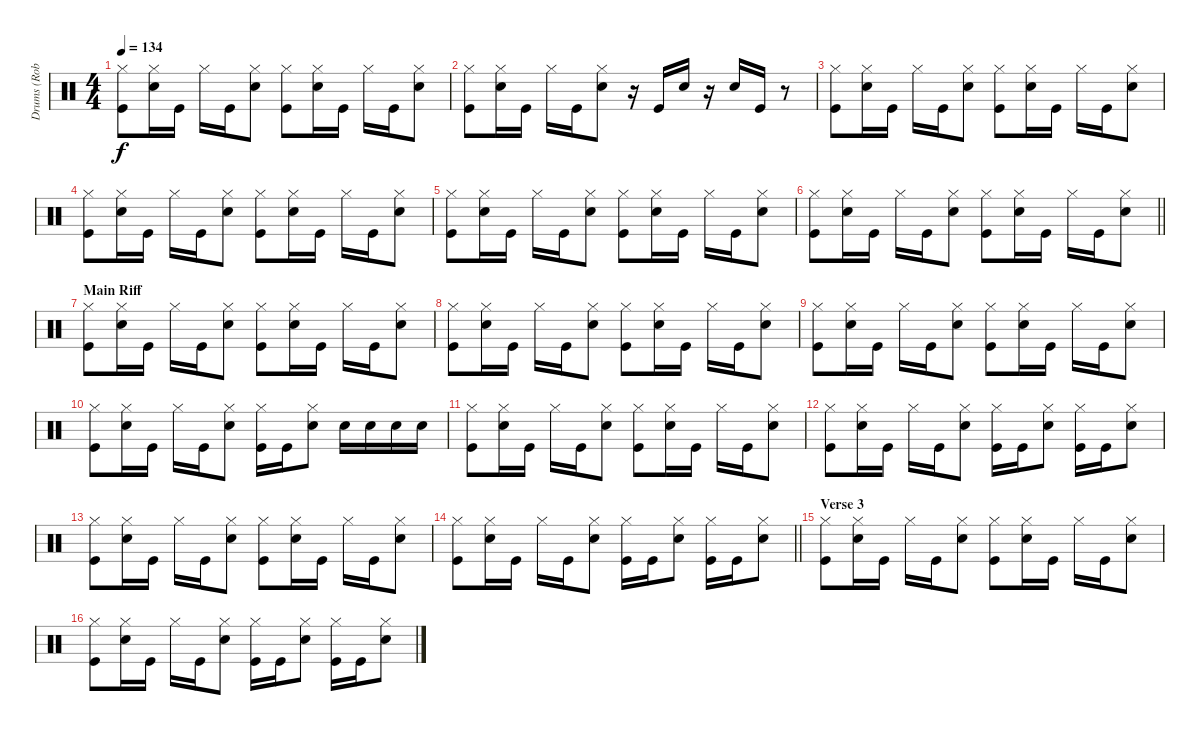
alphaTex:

\track ("Drums (Rob Affuso)" "Drums (Rob") {instrument percussion}
\staff {score}
\articulation defaults
\ts (4 4)
\tempo 134
\clef neutral
\ks c
("Hi-Hat (closed)" "Kick (hit)").8{dy f} ("Hi-Hat (closed)" "Snare (hit) 2").16 "Kick (hit)".16 "Hi-Hat (closed)".16 "Kick (hit)".16 ("Hi-Hat (closed)" "Snare (hit) 2").8 ("Hi-Hat (closed)" "Kick (hit)").8 ("Hi-Hat (closed)" "Snare (hit) 2").16 "Kick (hit)".16 "Hi-Hat (closed)".16 "Kick (hit)".16 ("Hi-Hat (closed)" "Snare (hit) 2").8 |
("Hi-Hat (closed)" "Kick (hit)").8 ("Hi-Hat (closed)" "Snare (hit) 2").16 "Kick (hit)".16 "Hi-Hat (closed)".16 "Kick (hit)".16 ("Hi-Hat (closed)" "Snare (hit) 2").8 r.16 "Kick (hit)".16 "Snare (hit) 2".16 r.16 "Snare (hit) 2".16 "Kick (hit)".16 r.8 |
("Hi-Hat (closed)" "Kick (hit)").8 ("Hi-Hat (closed)" "Snare (hit) 2").16 "Kick (hit)".16 "Hi-Hat (closed)".16 "Kick (hit)".16 ("Hi-Hat (closed)" "Snare (hit) 2").8 ("Hi-Hat (closed)" "Kick (hit)").8 ("Hi-Hat (closed)" "Snare (hit) 2").16 "Kick (hit)".16 "Hi-Hat (closed)".16 "Kick (hit)".16 ("Hi-Hat (closed)" "Snare (hit) 2").8 |
("Hi-Hat (closed)" "Kick (hit)").8 ("Hi-Hat (closed)" "Snare (hit) 2").16 "Kick (hit)".16 "Hi-Hat (closed)".16 "Kick (hit)".16 ("Hi-Hat (closed)" "Snare (hit) 2").8 ("Hi-Hat (closed)" "Kick (hit)").8 ("Hi-Hat (closed)" "Snare (hit) 2").16 "Kick (hit)".16 "Hi-Hat (closed)".16 "Kick (hit)".16 ("Hi-Hat (closed)" "Snare (hit) 2").8 |
("Hi-Hat (closed)" "Kick (hit)").8 ("Hi-Hat (closed)" "Snare (hit) 2").16 "Kick (hit)".16 "Hi-Hat (closed)".16 "Kick (hit)".16 ("Hi-Hat (closed)" "Snare (hit) 2").8 ("Hi-Hat (closed)" "Kick (hit)").8 ("Hi-Hat (closed)" "Snare (hit) 2").16 "Kick (hit)".16 "Hi-Hat (closed)".16 "Kick (hit)".16 ("Hi-Hat (closed)" "Snare (hit) 2").8 |
\barLineRight lightlight
("Hi-Hat (closed)" "Kick (hit)").8 ("Hi-Hat (closed)" "Snare (hit) 2").16 "Kick (hit)".16 "Hi-Hat (closed)".16 "Kick (hit)".16 ("Hi-Hat (closed)" "Snare (hit) 2").8 ("Hi-Hat (closed)" "Kick (hit)").8 ("Hi-Hat (closed)" "Snare (hit) 2").16 "Kick (hit)".16 "Hi-Hat (closed)".16 "Kick (hit)".16 ("Hi-Hat (closed)" "Snare (hit) 2").8 |
\section ("" "Main Riff")
("Hi-Hat (closed)" "Kick (hit)").8 ("Hi-Hat (closed)" "Snare (hit) 2").16 "Kick (hit)".16 "Hi-Hat (closed)".16 "Kick (hit)".16 ("Hi-Hat (closed)" "Snare (hit) 2").8 ("Hi-Hat (closed)" "Kick (hit)").8 ("Hi-Hat (closed)" "Snare (hit) 2").16 "Kick (hit)".16 "Hi-Hat (closed)".16 "Kick (hit)".16 ("Hi-Hat (closed)" "Snare (hit) 2").8 |
("Hi-Hat (closed)" "Kick (hit)").8 ("Hi-Hat (closed)" "Snare (hit) 2").16 "Kick (hit)".16 "Hi-Hat (closed)".16 "Kick (hit)".16 ("Hi-Hat (closed)" "Snare (hit) 2").8 ("Hi-Hat (closed)" "Kick (hit)").8 ("Hi-Hat (closed)" "Snare (hit) 2").16 "Kick (hit)".16 "Hi-Hat (closed)".16 "Kick (hit)".16 ("Hi-Hat (closed)" "Snare (hit) 2").8 |
("Hi-Hat (closed)" "Kick (hit)").8 ("Hi-Hat (closed)" "Snare (hit) 2").16 "Kick (hit)".16 "Hi-Hat (closed)".16 "Kick (hit)".16 ("Hi-Hat (closed)" "Snare (hit) 2").8 ("Hi-Hat (closed)" "Kick (hit)").8 ("Hi-Hat (closed)" "Snare (hit) 2").16 "Kick (hit)".16 "Hi-Hat (closed)".16 "Kick (hit)".16 ("Hi-Hat (closed)" "Snare (hit) 2").8 |
("Hi-Hat (closed)" "Kick (hit)").8 ("Hi-Hat (closed)" "Snare (hit) 2").16 "Kick (hit)".16 "Hi-Hat (closed)".16 "Kick (hit)".16 ("Hi-Hat (closed)" "Snare (hit) 2").8 ("Hi-Hat (closed)" "Kick (hit)").16 "Kick (hit)".16 ("Hi-Hat (closed)" "Snare (hit) 2").8 "Snare (hit) 2".16 "Snare (hit) 2".16 "Snare (hit) 2".16 "Snare (hit) 2".16 |
("Hi-Hat (closed)" "Kick (hit)").8 ("Hi-Hat (closed)" "Snare (hit) 2").16 "Kick (hit)".16 "Hi-Hat (closed)".16 "Kick (hit)".16 ("Hi-Hat (closed)" "Snare (hit) 2").8 ("Hi-Hat (closed)" "Kick (hit)").8 ("Hi-Hat (closed)" "Snare (hit) 2").16 "Kick (hit)".16 "Hi-Hat (closed)".16 "Kick (hit)".16 ("Hi-Hat (closed)" "Snare (hit) 2").8 |
("Hi-Hat (closed)" "Kick (hit)").8 ("Hi-Hat (closed)" "Snare (hit) 2").16 "Kick (hit)".16 "Hi-Hat (closed)".16 "Kick (hit)".16 ("Hi-Hat (closed)" "Snare (hit) 2").8 ("Hi-Hat (closed)" "Kick (hit)").16 "Kick (hit)".16 ("Hi-Hat (closed)" "Snare (hit) 2").8 ("Hi-Hat (closed)" "Kick (hit)").16 "Kick (hit)".16 ("Hi-Hat (closed)" "Snare (hit) 2").8 |
("Hi-Hat (closed)" "Kick (hit)").8 ("Hi-Hat (closed)" "Snare (hit) 2").16 "Kick (hit)".16 "Hi-Hat (closed)".16 "Kick (hit)".16 ("Hi-Hat (closed)" "Snare (hit) 2").8 ("Hi-Hat (closed)" "Kick (hit)").8 ("Hi-Hat (closed)" "Snare (hit) 2").16 "Kick (hit)".16 "Hi-Hat (closed)".16 "Kick (hit)".16 ("Hi-Hat (closed)" "Snare (hit) 2").8 |
\barLineRight lightlight
("Hi-Hat (closed)" "Kick (hit)").8 ("Hi-Hat (closed)" "Snare (hit) 2").16 "Kick (hit)".16 "Hi-Hat (closed)".16 "Kick (hit)".16 ("Hi-Hat (closed)" "Snare (hit) 2").8 ("Hi-Hat (closed)" "Kick (hit)").16 "Kick (hit)".16 ("Hi-Hat (closed)" "Snare (hit) 2").8 ("Hi-Hat (closed)" "Kick (hit)").16 "Kick (hit)".16 ("Hi-Hat (closed)" "Snare (hit) 2").8 |
\section ("" "Verse 3")
("Hi-Hat (closed)" "Kick (hit)").8 ("Hi-Hat (closed)" "Snare (hit) 2").16 "Kick (hit)".16 "Hi-Hat (closed)".16 "Kick (hit)".16 ("Hi-Hat (closed)" "Snare (hit) 2").8 ("Hi-Hat (closed)" "Kick (hit)").8 ("Hi-Hat (closed)" "Snare (hit) 2").16 "Kick (hit)".16 "Hi-Hat (closed)".16 "Kick (hit)".16 ("Hi-Hat (closed)" "Snare (hit) 2").8 |
("Hi-Hat (closed)" "Kick (hit)").8 ("Hi-Hat (closed)" "Snare (hit) 2").16 "Kick (hit)".16 "Hi-Hat (closed)".16 "Kick (hit)".16 ("Hi-Hat (closed)" "Snare (hit) 2").8 ("Hi-Hat (closed)" "Kick (hit)").16 "Kick (hit)".16 ("Hi-Hat (closed)" "Snare (hit) 2").8 ("Hi-Hat (closed)" "Kick (hit)").16 "Kick (hit)".16 ("Hi-Hat (closed)" "Snare (hit) 2").8
